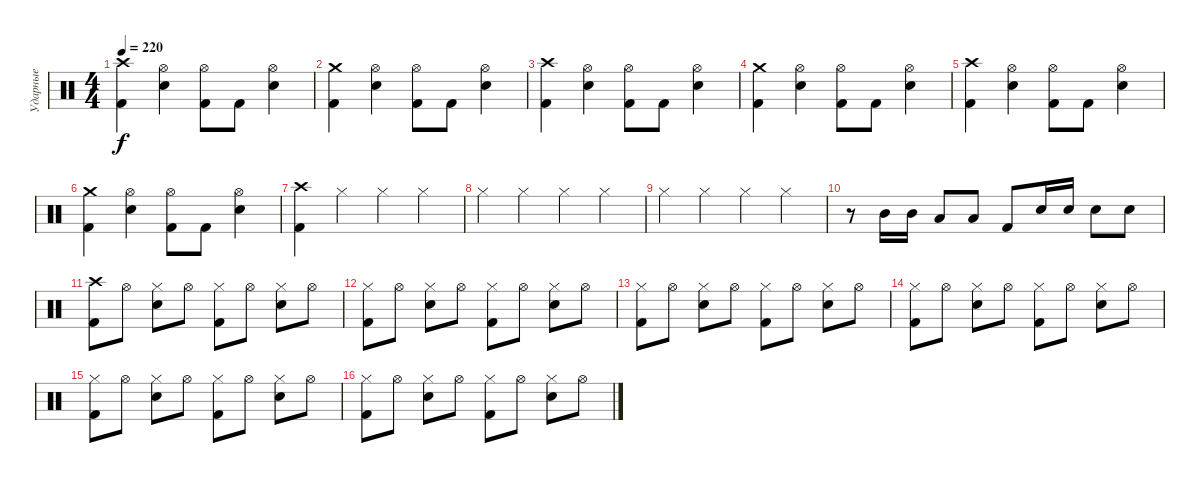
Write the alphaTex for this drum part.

\track ("Ударные" "Ударные") {instrument percussion}
\staff {score}
\articulation defaults
\ts (4 4)
\tempo 220
\clef neutral
\ks c
("Crash high (hit)" "Kick (hit) 2").4{dy f} ("Hi-Hat (open)" "Electric Snare (hit)").4 ("Hi-Hat (open)" "Kick (hit) 2").8 "Kick (hit) 2".8 ("Hi-Hat (open)" "Electric Snare (hit)").4 |
("Crash medium (hit)" "Kick (hit) 2").4 ("Hi-Hat (open)" "Electric Snare (hit)").4 ("Hi-Hat (open)" "Kick (hit) 2").8 "Kick (hit) 2".8 ("Hi-Hat (open)" "Electric Snare (hit)").4 |
("Crash high (hit)" "Kick (hit) 2").4 ("Hi-Hat (open)" "Electric Snare (hit)").4 ("Hi-Hat (open)" "Kick (hit) 2").8 "Kick (hit) 2".8 ("Hi-Hat (open)" "Electric Snare (hit)").4 |
("Crash medium (hit)" "Kick (hit) 2").4 ("Hi-Hat (open)" "Electric Snare (hit)").4 ("Hi-Hat (open)" "Kick (hit) 2").8 "Kick (hit) 2".8 ("Hi-Hat (open)" "Electric Snare (hit)").4 |
("Crash high (hit)" "Kick (hit) 2").4 ("Hi-Hat (open)" "Electric Snare (hit)").4 ("Hi-Hat (open)" "Kick (hit) 2").8 "Kick (hit) 2".8 ("Hi-Hat (open)" "Electric Snare (hit)").4 |
("Crash medium (hit)" "Kick (hit) 2").4 ("Hi-Hat (open)" "Electric Snare (hit)").4 ("Hi-Hat (open)" "Kick (hit) 2").8 "Kick (hit) 2".8 ("Hi-Hat (open)" "Electric Snare (hit)").4 |
("Crash high (hit)" "Kick (hit) 2").4 "Hi-Hat (closed)".4 "Hi-Hat (closed)".4 "Hi-Hat (closed)".4 |
"Hi-Hat (closed)".4 "Hi-Hat (closed)".4 "Hi-Hat (closed)".4 "Hi-Hat (closed)".4 |
"Hi-Hat (closed)".4 "Hi-Hat (closed)".4 "Hi-Hat (closed)".4 "Hi-Hat (closed)".4 |
r.8 "Mid Tom (hit)".16 "Mid Tom (hit)".16 "Low Tom (hit)".8 "Low Tom (hit)".8 "Kick (hit) 2".8 "Electric Snare (hit)".16 "Electric Snare (hit)".16 "Electric Snare (hit)".8 "Electric Snare (hit)".8 |
("Crash high (hit)" "Kick (hit) 2").8 "Hi-Hat (open)".8 ("Hi-Hat (closed)" "Electric Snare (hit)").8 "Hi-Hat (open)".8 ("Hi-Hat (closed)" "Kick (hit) 2").8 "Hi-Hat (open)".8 ("Hi-Hat (closed)" "Electric Snare (hit)").8 "Hi-Hat (open)".8 |
("Hi-Hat (closed)" "Kick (hit) 2").8 "Hi-Hat (open)".8 ("Hi-Hat (closed)" "Electric Snare (hit)").8 "Hi-Hat (open)".8 ("Hi-Hat (closed)" "Kick (hit) 2").8 "Hi-Hat (open)".8 ("Hi-Hat (closed)" "Electric Snare (hit)").8 "Hi-Hat (open)".8 |
("Hi-Hat (closed)" "Kick (hit) 2").8 "Hi-Hat (open)".8 ("Hi-Hat (closed)" "Electric Snare (hit)").8 "Hi-Hat (open)".8 ("Hi-Hat (closed)" "Kick (hit) 2").8 "Hi-Hat (open)".8 ("Hi-Hat (closed)" "Electric Snare (hit)").8 "Hi-Hat (open)".8 |
("Hi-Hat (closed)" "Kick (hit) 2").8 "Hi-Hat (open)".8 ("Hi-Hat (closed)" "Electric Snare (hit)").8 "Hi-Hat (open)".8 ("Hi-Hat (closed)" "Kick (hit) 2").8 "Hi-Hat (open)".8 ("Hi-Hat (closed)" "Electric Snare (hit)").8 "Hi-Hat (open)".8 |
("Hi-Hat (closed)" "Kick (hit) 2").8 "Hi-Hat (open)".8 ("Hi-Hat (closed)" "Electric Snare (hit)").8 "Hi-Hat (open)".8 ("Hi-Hat (closed)" "Kick (hit) 2").8 "Hi-Hat (open)".8 ("Hi-Hat (closed)" "Electric Snare (hit)").8 "Hi-Hat (open)".8 |
("Hi-Hat (closed)" "Kick (hit) 2").8 "Hi-Hat (open)".8 ("Hi-Hat (closed)" "Electric Snare (hit)").8 "Hi-Hat (open)".8 ("Hi-Hat (closed)" "Kick (hit) 2").8 "Hi-Hat (open)".8 ("Hi-Hat (closed)" "Electric Snare (hit)").8 "Hi-Hat (open)".8
